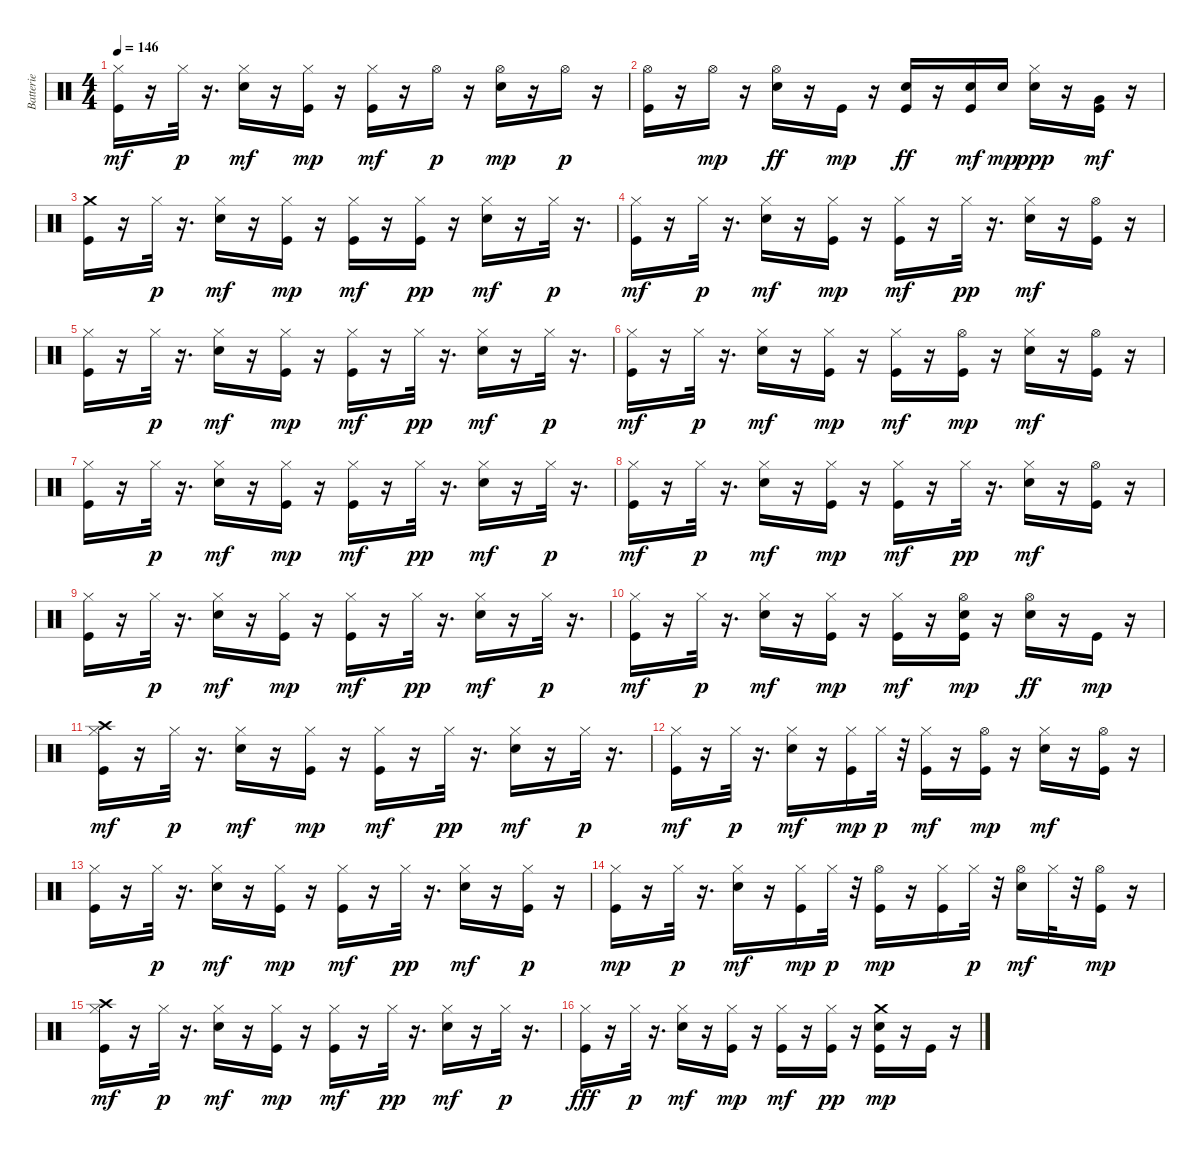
\track ("Batterie" "Batterie") {instrument percussion}
\staff {score}
\articulation defaults
\ts (4 4)
\tempo 146
\clef neutral
\ks c
("Kick (hit)" "Hi-Hat (closed)").16{dy mf} r.16 "Hi-Hat (closed)".32{dy p} r.16{d} ("Electric Snare (hit)" "Hi-Hat (closed)").16{dy mf} r.16 ("Kick (hit)" "Hi-Hat (closed)").16{dy mp} r.16 ("Kick (hit)" "Hi-Hat (closed)").16{dy mf} r.16 "Hi-Hat (open)".16{dy p} r.16 ("Electric Snare (hit)" "Hi-Hat (open)").16{dy mp} r.16 "Hi-Hat (open)".16{dy p} r.16 |
("Kick (hit)" "Hi-Hat (open)").16 r.16 "Hi-Hat (open)".16{dy mp} r.16 ("Electric Snare (hit)" "Hi-Hat (open)").16{dy ff} r.16 "Kick (hit)".16{dy mp} r.16 ("Kick (hit)" "Electric Snare (hit)").16{dy ff} r.16 ("Kick (hit)" "Electric Snare (hit)").16{dy mf} "Electric Snare (hit)".16{dy mp} ("Electric Snare (hit)" "Hi-Hat (closed)").16{dy ppp} r.16 ("Kick (hit)" "Very Low Tom (hit)").16{dy mf} r.16 |
("Kick (hit)" "Crash medium (hit)").16 r.16 "Hi-Hat (closed)".32{dy p} r.16{d} ("Electric Snare (hit)" "Hi-Hat (closed)").16{dy mf} r.16 ("Kick (hit)" "Hi-Hat (closed)").16{dy mp} r.16 ("Kick (hit)" "Hi-Hat (closed)").16{dy mf} r.16 ("Kick (hit)" "Hi-Hat (closed)").16{dy pp} r.16 ("Electric Snare (hit)" "Hi-Hat (closed)").16{dy mf} r.16 "Hi-Hat (closed)".32{dy p} r.16{d} |
("Kick (hit)" "Hi-Hat (closed)").16{dy mf} r.16 "Hi-Hat (closed)".32{dy p} r.16{d} ("Electric Snare (hit)" "Hi-Hat (closed)").16{dy mf} r.16 ("Kick (hit)" "Hi-Hat (closed)").16{dy mp} r.16 ("Kick (hit)" "Hi-Hat (closed)").16{dy mf} r.16 "Hi-Hat (closed)".32{dy pp} r.16{d} ("Electric Snare (hit)" "Hi-Hat (closed)").16{dy mf} r.16 ("Kick (hit)" "Hi-Hat (open)").16 r.16 |
("Kick (hit)" "Hi-Hat (closed)").16 r.16 "Hi-Hat (closed)".32{dy p} r.16{d} ("Electric Snare (hit)" "Hi-Hat (closed)").16{dy mf} r.16 ("Kick (hit)" "Hi-Hat (closed)").16{dy mp} r.16 ("Kick (hit)" "Hi-Hat (closed)").16{dy mf} r.16 "Hi-Hat (closed)".32{dy pp} r.16{d} ("Electric Snare (hit)" "Hi-Hat (closed)").16{dy mf} r.16 "Hi-Hat (closed)".32{dy p} r.16{d} |
("Kick (hit)" "Hi-Hat (closed)").16{dy mf} r.16 "Hi-Hat (closed)".32{dy p} r.16{d} ("Electric Snare (hit)" "Hi-Hat (closed)").16{dy mf} r.16 ("Kick (hit)" "Hi-Hat (closed)").16{dy mp} r.16 ("Kick (hit)" "Hi-Hat (closed)").16{dy mf} r.16 ("Kick (hit)" "Hi-Hat (open)").16{dy mp} r.16 ("Electric Snare (hit)" "Hi-Hat (closed)").16{dy mf} r.16 ("Kick (hit)" "Hi-Hat (open)").16 r.16 |
("Kick (hit)" "Hi-Hat (closed)").16 r.16 "Hi-Hat (closed)".32{dy p} r.16{d} ("Electric Snare (hit)" "Hi-Hat (closed)").16{dy mf} r.16 ("Kick (hit)" "Hi-Hat (closed)").16{dy mp} r.16 ("Kick (hit)" "Hi-Hat (closed)").16{dy mf} r.16 "Hi-Hat (closed)".32{dy pp} r.16{d} ("Electric Snare (hit)" "Hi-Hat (closed)").16{dy mf} r.16 "Hi-Hat (closed)".32{dy p} r.16{d} |
("Kick (hit)" "Hi-Hat (closed)").16{dy mf} r.16 "Hi-Hat (closed)".32{dy p} r.16{d} ("Electric Snare (hit)" "Hi-Hat (closed)").16{dy mf} r.16 ("Kick (hit)" "Hi-Hat (closed)").16{dy mp} r.16 ("Kick (hit)" "Hi-Hat (closed)").16{dy mf} r.16 "Hi-Hat (closed)".32{dy pp} r.16{d} ("Electric Snare (hit)" "Hi-Hat (closed)").16{dy mf} r.16 ("Kick (hit)" "Hi-Hat (open)").16 r.16 |
("Kick (hit)" "Hi-Hat (closed)").16 r.16 "Hi-Hat (closed)".32{dy p} r.16{d} ("Electric Snare (hit)" "Hi-Hat (closed)").16{dy mf} r.16 ("Kick (hit)" "Hi-Hat (closed)").16{dy mp} r.16 ("Kick (hit)" "Hi-Hat (closed)").16{dy mf} r.16 "Hi-Hat (closed)".32{dy pp} r.16{d} ("Electric Snare (hit)" "Hi-Hat (closed)").16{dy mf} r.16 "Hi-Hat (closed)".32{dy p} r.16{d} |
("Kick (hit)" "Hi-Hat (closed)").16{dy mf} r.16 "Hi-Hat (closed)".32{dy p} r.16{d} ("Electric Snare (hit)" "Hi-Hat (closed)").16{dy mf} r.16 ("Kick (hit)" "Hi-Hat (closed)").16{dy mp} r.16 ("Kick (hit)" "Hi-Hat (closed)").16{dy mf} r.16 ("Kick (hit)" "Electric Snare (hit)" "Hi-Hat (open)").16{dy mp} r.16 ("Electric Snare (hit)" "Hi-Hat (open)").16{dy ff} r.16 "Kick (hit)".16{dy mp} r.16 |
("Kick (hit)" "Hi-Hat (closed)" "Crash high (hit)").16{dy mf} r.16 "Hi-Hat (closed)".32{dy p} r.16{d} ("Electric Snare (hit)" "Hi-Hat (closed)").16{dy mf} r.16 ("Kick (hit)" "Hi-Hat (closed)").16{dy mp} r.16 ("Kick (hit)" "Hi-Hat (closed)").16{dy mf} r.16 "Hi-Hat (closed)".32{dy pp} r.16{d} ("Electric Snare (hit)" "Hi-Hat (closed)").16{dy mf} r.16 "Hi-Hat (closed)".32{dy p} r.16{d} |
("Kick (hit)" "Hi-Hat (closed)").16{dy mf} r.16 "Hi-Hat (closed)".32{dy p} r.16{d} ("Electric Snare (hit)" "Hi-Hat (closed)").16{dy mf} r.16 ("Kick (hit)" "Hi-Hat (closed)").16{dy mp} "Hi-Hat (closed)".32{dy p} r.32 ("Kick (hit)" "Hi-Hat (closed)").16{dy mf} r.16 ("Kick (hit)" "Hi-Hat (open)").16{dy mp} r.16 ("Electric Snare (hit)" "Hi-Hat (closed)").16{dy mf} r.16 ("Kick (hit)" "Hi-Hat (open)").16 r.16 |
("Kick (hit)" "Hi-Hat (closed)").16 r.16 "Hi-Hat (closed)".32{dy p} r.16{d} ("Electric Snare (hit)" "Hi-Hat (closed)").16{dy mf} r.16 ("Kick (hit)" "Hi-Hat (closed)").16{dy mp} r.16 ("Kick (hit)" "Hi-Hat (closed)").16{dy mf} r.16 "Hi-Hat (closed)".32{dy pp} r.16{d} ("Electric Snare (hit)" "Hi-Hat (closed)").16{dy mf} r.16 ("Kick (hit)" "Hi-Hat (closed)").16{dy p} r.16 |
("Kick (hit)" "Hi-Hat (closed)").16{dy mp} r.16 "Hi-Hat (closed)".32{dy p} r.16{d} ("Electric Snare (hit)" "Hi-Hat (closed)").16{dy mf} r.16 ("Kick (hit)" "Hi-Hat (closed)").16{dy mp} "Hi-Hat (closed)".32{dy p} r.32 ("Kick (hit)" "Hi-Hat (open)").16{dy mp} r.16 ("Kick (hit)" "Hi-Hat (closed)").16 "Hi-Hat (closed)".32{dy p} r.32 ("Electric Snare (hit)" "Hi-Hat (open)").16{dy mf} "Hi-Hat (closed)".32 r.32 ("Kick (hit)" "Hi-Hat (open)").16{dy mp} r.16 |
("Kick (hit)" "Hi-Hat (closed)" "Crash high (hit)").16{dy mf} r.16 "Hi-Hat (closed)".32{dy p} r.16{d} ("Electric Snare (hit)" "Hi-Hat (closed)").16{dy mf} r.16 ("Kick (hit)" "Hi-Hat (closed)").16{dy mp} r.16 ("Kick (hit)" "Hi-Hat (closed)").16{dy mf} r.16 "Hi-Hat (closed)".32{dy pp} r.16{d} ("Electric Snare (hit)" "Hi-Hat (closed)").16{dy mf} r.16 "Hi-Hat (closed)".32{dy p} r.16{d} |
("Kick (hit)" "Hi-Hat (closed)").16{dy fff} r.16 "Hi-Hat (closed)".32{dy p} r.16{d} ("Electric Snare (hit)" "Hi-Hat (closed)").16{dy mf} r.16 ("Kick (hit)" "Hi-Hat (closed)").16{dy mp} r.16 ("Kick (hit)" "Hi-Hat (closed)").16{dy mf} r.16 ("Kick (hit)" "Hi-Hat (closed)").16{dy pp} r.16 ("Kick (hit)" "Electric Snare (hit)" "Crash medium (hit)").16{dy mp} r.16 "Kick (hit)".16 r.16
